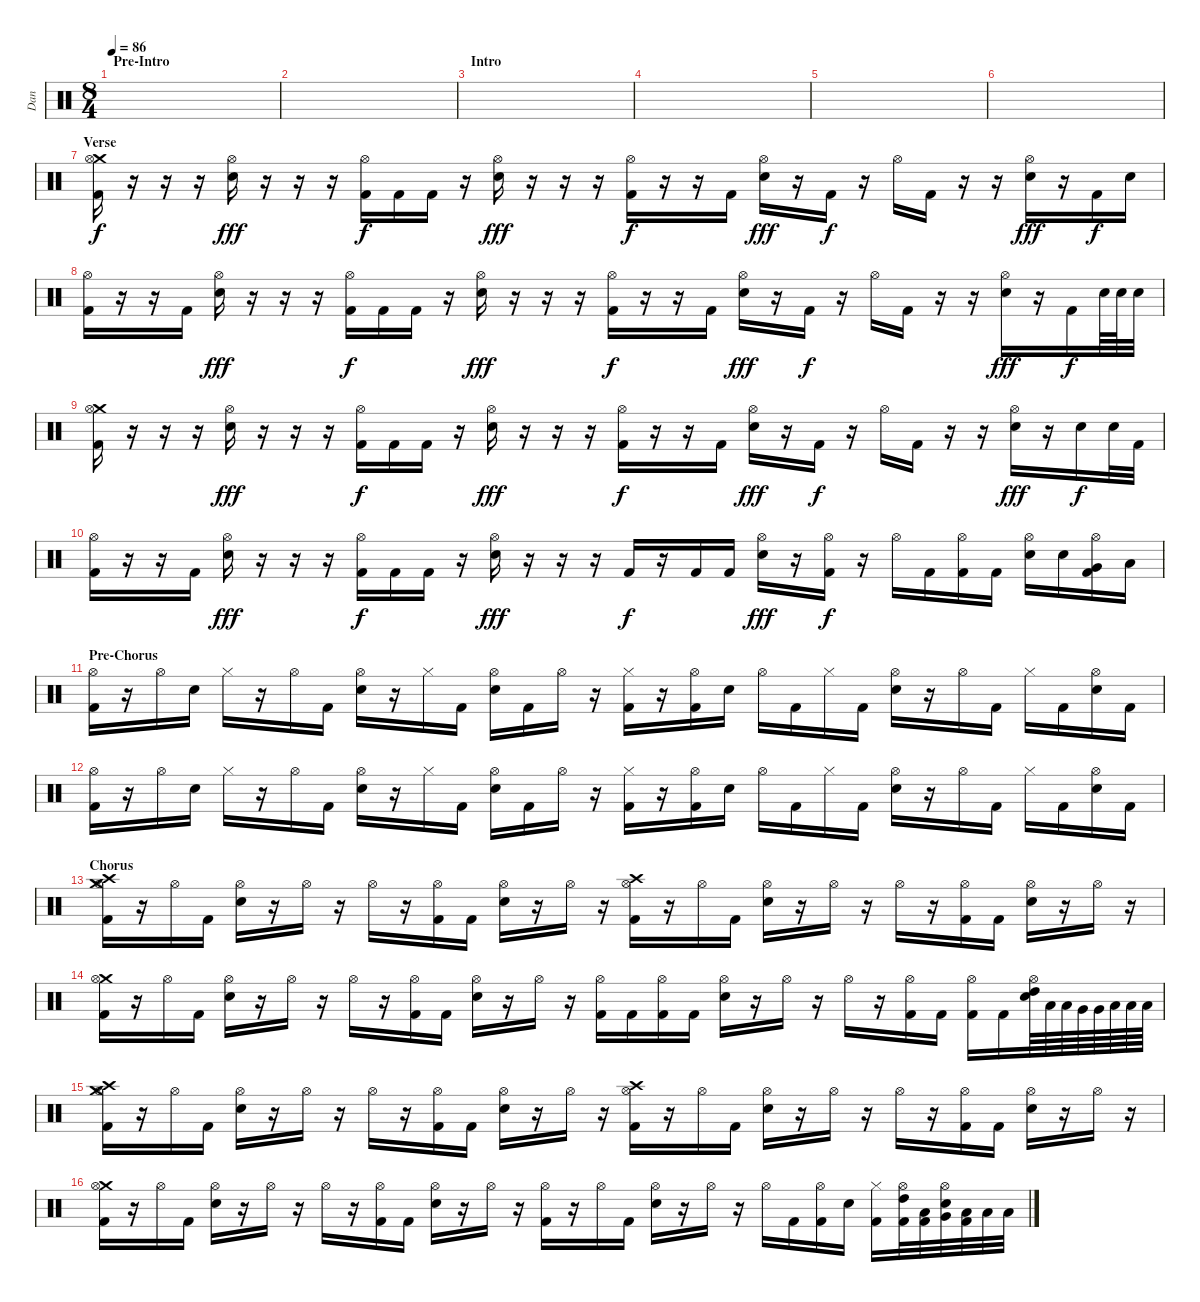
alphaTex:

\track ("Dan" "Dan") {instrument percussion}
\staff {score}
\articulation defaults
\ts (8 4)
\section ("" "Pre-Intro")
\tempo 86
\clef neutral
\ks c
|
|
\section ("" "Intro")
|
|
|
|
\section ("" "Verse")
("Crash medium (hit)" "Hi-Hat (open)" "Kick (hit) 2").16 r.16 r.16 r.16 ("Hi-Hat (open)" "Electric Snare (hit)").16{dy fff} r.16 r.16 r.16 ("Hi-Hat (open)" "Kick (hit) 2").16{dy f} "Kick (hit) 2".16 "Kick (hit) 2".16 r.16 ("Hi-Hat (open)" "Electric Snare (hit)").16{dy fff} r.16 r.16 r.16 ("Hi-Hat (open)" "Kick (hit) 2").16{dy f} r.16 r.16 "Kick (hit) 2".16 ("Hi-Hat (open)" "Electric Snare (hit)").16{dy fff} r.16 "Kick (hit) 2".16{dy f} r.16 "Hi-Hat (open)".16 "Kick (hit) 2".16 r.16 r.16 ("Hi-Hat (open)" "Electric Snare (hit)").16{dy fff} r.16 "Kick (hit) 2".16{dy f} "Electric Snare (hit)".16 |
("Hi-Hat (open)" "Kick (hit) 2").16 r.16 r.16 "Kick (hit) 2".16 ("Hi-Hat (open)" "Electric Snare (hit)").16{dy fff} r.16 r.16 r.16 ("Hi-Hat (open)" "Kick (hit) 2").16{dy f} "Kick (hit) 2".16 "Kick (hit) 2".16 r.16 ("Hi-Hat (open)" "Electric Snare (hit)").16{dy fff} r.16 r.16 r.16 ("Hi-Hat (open)" "Kick (hit) 2").16{dy f} r.16 r.16 "Kick (hit) 2".16 ("Hi-Hat (open)" "Electric Snare (hit)").16{dy fff} r.16 "Kick (hit) 2".16{dy f} r.16 "Hi-Hat (open)".16 "Kick (hit) 2".16 r.16 r.16 ("Hi-Hat (open)" "Electric Snare (hit)").16{dy fff} r.16 "Kick (hit) 2".16{dy f} "Electric Snare (hit)".64 "Electric Snare (hit)".64 "Electric Snare (hit)".32 |
("Crash medium (hit)" "Hi-Hat (open)" "Kick (hit) 2").16 r.16 r.16 r.16 ("Hi-Hat (open)" "Electric Snare (hit)").16{dy fff} r.16 r.16 r.16 ("Hi-Hat (open)" "Kick (hit) 2").16{dy f} "Kick (hit) 2".16 "Kick (hit) 2".16 r.16 ("Hi-Hat (open)" "Electric Snare (hit)").16{dy fff} r.16 r.16 r.16 ("Hi-Hat (open)" "Kick (hit) 2").16{dy f} r.16 r.16 "Kick (hit) 2".16 ("Hi-Hat (open)" "Electric Snare (hit)").16{dy fff} r.16 "Kick (hit) 2".16{dy f} r.16 "Hi-Hat (open)".16 "Kick (hit) 2".16 r.16 r.16 ("Hi-Hat (open)" "Electric Snare (hit)").16{dy fff} r.16 "Electric Snare (hit)".16{dy f} "Electric Snare (hit)".32 "Kick (hit) 2".32 |
("Hi-Hat (open)" "Kick (hit) 2").16 r.16 r.16 "Kick (hit) 2".16 ("Hi-Hat (open)" "Electric Snare (hit)").16{dy fff} r.16 r.16 r.16 ("Hi-Hat (open)" "Kick (hit) 2").16{dy f} "Kick (hit) 2".16 "Kick (hit) 2".16 r.16 ("Hi-Hat (open)" "Electric Snare (hit)").16{dy fff} r.16 r.16 r.16 "Kick (hit) 2".16{dy f} r.16 "Kick (hit) 2".16 "Kick (hit) 2".16 ("Hi-Hat (open)" "Electric Snare (hit)").16{dy fff} r.16 ("Hi-Hat (open)" "Kick (hit) 2").16{dy f} r.16 "Hi-Hat (open)".16 "Kick (hit) 2".16 ("Hi-Hat (open)" "Kick (hit) 2").16 "Kick (hit) 2".16 ("Hi-Hat (open)" "Electric Snare (hit)").16 "Electric Snare (hit)".16 ("Hi-Hat (open)" "Very Low Tom (hit)" "Kick (hit) 2").16 "Low Tom (hit)".16 |
\section ("" "Pre-Chorus")
("Hi-Hat (open)" "Kick (hit) 2").16 r.16 "Hi-Hat (open)".16 "Electric Snare (hit)".16 "Hi-Hat (closed)".16 r.16 "Hi-Hat (open)".16 "Kick (hit) 2".16 ("Hi-Hat (open)" "Electric Snare (hit)").16 r.16 "Hi-Hat (closed)".16 "Kick (hit) 2".16 ("Hi-Hat (open)" "Electric Snare (hit)").16 "Kick (hit) 2".16 "Hi-Hat (open)".16 r.16 ("Hi-Hat (closed)" "Kick (hit) 2").16 r.16 ("Hi-Hat (open)" "Kick (hit) 2").16 "Electric Snare (hit)".16 "Hi-Hat (open)".16 "Kick (hit) 2".16 "Hi-Hat (closed)".16 "Kick (hit) 2".16 ("Hi-Hat (open)" "Electric Snare (hit)").16 r.16 "Hi-Hat (open)".16 "Kick (hit) 2".16 "Hi-Hat (closed)".16 "Kick (hit) 2".16 ("Hi-Hat (open)" "Electric Snare (hit)").16 "Kick (hit) 2".16 |
("Hi-Hat (open)" "Kick (hit) 2").16 r.16 "Hi-Hat (open)".16 "Electric Snare (hit)".16 "Hi-Hat (closed)".16 r.16 "Hi-Hat (open)".16 "Kick (hit) 2".16 ("Hi-Hat (open)" "Electric Snare (hit)").16 r.16 "Hi-Hat (closed)".16 "Kick (hit) 2".16 ("Hi-Hat (open)" "Electric Snare (hit)").16 "Kick (hit) 2".16 "Hi-Hat (open)".16 r.16 ("Hi-Hat (closed)" "Kick (hit) 2").16 r.16 ("Hi-Hat (open)" "Kick (hit) 2").16 "Electric Snare (hit)".16 "Hi-Hat (open)".16 "Kick (hit) 2".16 "Hi-Hat (closed)".16 "Kick (hit) 2".16 ("Hi-Hat (open)" "Electric Snare (hit)").16 r.16 "Hi-Hat (open)".16 "Kick (hit) 2".16 "Hi-Hat (closed)".16 "Kick (hit) 2".16 ("Hi-Hat (open)" "Electric Snare (hit)").16 "Kick (hit) 2".16 |
\section ("" "Chorus")
("Crash medium (hit)" "Crash high (hit)" "Hi-Hat (open)" "Kick (hit) 2").16 r.16 "Hi-Hat (open)".16 "Kick (hit) 2".16 ("Hi-Hat (open)" "Electric Snare (hit)").16 r.16 "Hi-Hat (open)".16 r.16 "Hi-Hat (open)".16 r.16 ("Hi-Hat (open)" "Kick (hit) 2").16 "Kick (hit) 2".16 ("Hi-Hat (open)" "Electric Snare (hit)").16 r.16 "Hi-Hat (open)".16 r.16 ("Crash high (hit)" "Hi-Hat (open)" "Kick (hit) 2").16 r.16 "Hi-Hat (open)".16 "Kick (hit) 2".16 ("Hi-Hat (open)" "Electric Snare (hit)").16 r.16 "Hi-Hat (open)".16 r.16 "Hi-Hat (open)".16 r.16 ("Hi-Hat (open)" "Kick (hit) 2").16 "Kick (hit) 2".16 ("Hi-Hat (open)" "Electric Snare (hit)").16 r.16 "Hi-Hat (open)".16 r.16 |
("Crash medium (hit)" "Hi-Hat (open)" "Kick (hit) 2").16 r.16 "Hi-Hat (open)".16 "Kick (hit) 2".16 ("Hi-Hat (open)" "Electric Snare (hit)").16 r.16 "Hi-Hat (open)".16 r.16 "Hi-Hat (open)".16 r.16 ("Hi-Hat (open)" "Kick (hit) 2").16 "Kick (hit) 2".16 ("Hi-Hat (open)" "Electric Snare (hit)").16 r.16 "Hi-Hat (open)".16 r.16 ("Hi-Hat (open)" "Kick (hit) 2").16 "Kick (hit) 2".16 ("Hi-Hat (open)" "Kick (hit) 2").16 "Kick (hit) 2".16 ("Hi-Hat (open)" "Electric Snare (hit)").16 r.16 "Hi-Hat (open)".16 r.16 "Hi-Hat (open)".16 r.16 ("Hi-Hat (open)" "Kick (hit) 2").16 "Kick (hit) 2".16 ("Hi-Hat (open)" "Kick (hit) 2").16 "Kick (hit) 2".16 ("High Tom (hit)" "Hi-Hat (open)" "Electric Snare (hit)").64 "Low Tom (hit)".64 "Low Tom (hit)".64 "Very Low Tom (hit)".64 "Very Low Tom (hit)".64 "Low Floor Tom (hit)".64 "Low Floor Tom (hit)".64 "Low Floor Tom (hit)".64 |
("Crash medium (hit)" "Crash high (hit)" "Hi-Hat (open)" "Kick (hit) 2").16 r.16 "Hi-Hat (open)".16 "Kick (hit) 2".16 ("Hi-Hat (open)" "Electric Snare (hit)").16 r.16 "Hi-Hat (open)".16 r.16 "Hi-Hat (open)".16 r.16 ("Hi-Hat (open)" "Kick (hit) 2").16 "Kick (hit) 2".16 ("Hi-Hat (open)" "Electric Snare (hit)").16 r.16 "Hi-Hat (open)".16 r.16 ("Crash high (hit)" "Hi-Hat (open)" "Kick (hit) 2").16 r.16 "Hi-Hat (open)".16 "Kick (hit) 2".16 ("Hi-Hat (open)" "Electric Snare (hit)").16 r.16 "Hi-Hat (open)".16 r.16 "Hi-Hat (open)".16 r.16 ("Hi-Hat (open)" "Kick (hit) 2").16 "Kick (hit) 2".16 ("Hi-Hat (open)" "Electric Snare (hit)").16 r.16 "Hi-Hat (open)".16 r.16 |
("Crash medium (hit)" "Hi-Hat (open)" "Kick (hit) 2").16 r.16 "Hi-Hat (open)".16 "Kick (hit) 2".16 ("Hi-Hat (open)" "Electric Snare (hit)").16 r.16 "Hi-Hat (open)".16 r.16 "Hi-Hat (open)".16 r.16 ("Hi-Hat (open)" "Kick (hit) 2").16 "Kick (hit) 2".16 ("Hi-Hat (open)" "Electric Snare (hit)").16 r.16 "Hi-Hat (open)".16 r.16 ("Hi-Hat (open)" "Kick (hit) 2").16 r.16 "Hi-Hat (open)".16 "Kick (hit) 2".16 ("Hi-Hat (open)" "Electric Snare (hit)").16 r.16 "Hi-Hat (open)".16 r.16 "Hi-Hat (open)".16 "Kick (hit) 2".16 ("Hi-Hat (open)" "Kick (hit) 2").16 "Snare (hit)".16 ("Hi-Hat (closed)" "Kick (hit) 2").16 ("High Tom (hit)" "Hi-Hat (open)" "Kick (hit) 2").32 ("Low Tom (hit)" "Kick (hit) 2").32 ("Very Low Tom (hit)" "Hi-Hat (open)" "Electric Snare (hit)").32 ("Low Floor Tom (hit)" "Kick (hit) 2").32 "Low Floor Tom (hit)".32 "Low Floor Tom (hit)".32
